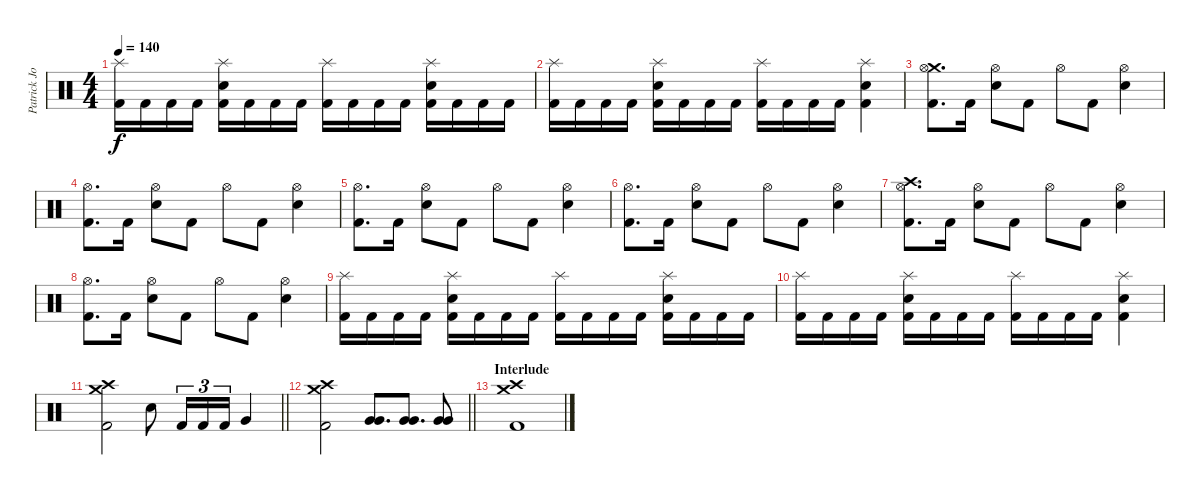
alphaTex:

\track ("Patrick Johansson" "Patrick Jo") {instrument percussion}
\staff {score}
\articulation defaults
\ts (4 4)
\tempo 140
\clef neutral
\ks c
("Splash (hit)" "Kick (hit) 2").16{dy f} "Kick (hit) 2".16 "Kick (hit) 2".16 "Kick (hit) 2".16 ("Splash (hit)" "Snare (hit) 2" "Kick (hit) 2").16 "Kick (hit) 2".16 "Kick (hit) 2".16 "Kick (hit) 2".16 ("Splash (hit)" "Kick (hit) 2").16 "Kick (hit) 2".16 "Kick (hit) 2".16 "Kick (hit) 2".16 ("Splash (hit)" "Snare (hit) 2" "Kick (hit) 2").16 "Kick (hit) 2".16 "Kick (hit) 2".16 "Kick (hit) 2".16 |
("Splash (hit)" "Kick (hit) 2").16 "Kick (hit) 2".16 "Kick (hit) 2".16 "Kick (hit) 2".16 ("Splash (hit)" "Snare (hit) 2" "Kick (hit) 2").16 "Kick (hit) 2".16 "Kick (hit) 2".16 "Kick (hit) 2".16 ("Splash (hit)" "Kick (hit) 2").16 "Kick (hit) 2".16 "Kick (hit) 2".16 "Kick (hit) 2".16 ("Splash (hit)" "Snare (hit) 2" "Kick (hit) 2").4 |
("Crash medium (hit)" "Hi-Hat (open)" "Kick (hit) 2").8{d} "Kick (hit) 2".16 ("Hi-Hat (open)" "Snare (hit) 2").8 "Kick (hit) 2".8 "Hi-Hat (open)".8 "Kick (hit) 2".8 ("Hi-Hat (open)" "Snare (hit) 2").4 |
("Hi-Hat (open)" "Kick (hit) 2").8{d} "Kick (hit) 2".16 ("Hi-Hat (open)" "Snare (hit) 2").8 "Kick (hit) 2".8 "Hi-Hat (open)".8 "Kick (hit) 2".8 ("Hi-Hat (open)" "Snare (hit) 2").4 |
("Hi-Hat (open)" "Kick (hit) 2").8{d} "Kick (hit) 2".16 ("Hi-Hat (open)" "Snare (hit) 2").8 "Kick (hit) 2".8 "Hi-Hat (open)".8 "Kick (hit) 2".8 ("Hi-Hat (open)" "Snare (hit) 2").4 |
("Hi-Hat (open)" "Kick (hit) 2").8{d} "Kick (hit) 2".16 ("Hi-Hat (open)" "Snare (hit) 2").8 "Kick (hit) 2".8 "Hi-Hat (open)".8 "Kick (hit) 2".8 ("Hi-Hat (open)" "Snare (hit) 2").4 |
("Crash high (hit)" "Hi-Hat (open)" "Kick (hit) 2").8{d} "Kick (hit) 2".16 ("Hi-Hat (open)" "Snare (hit) 2").8 "Kick (hit) 2".8 "Hi-Hat (open)".8 "Kick (hit) 2".8 ("Hi-Hat (open)" "Snare (hit) 2").4 |
("Hi-Hat (open)" "Kick (hit) 2").8{d} "Kick (hit) 2".16 ("Hi-Hat (open)" "Snare (hit) 2").8 "Kick (hit) 2".8 "Hi-Hat (open)".8 "Kick (hit) 2".8 ("Hi-Hat (open)" "Snare (hit) 2").4 |
("Splash (hit)" "Kick (hit) 2").16 "Kick (hit) 2".16 "Kick (hit) 2".16 "Kick (hit) 2".16 ("Splash (hit)" "Snare (hit) 2" "Kick (hit) 2").16 "Kick (hit) 2".16 "Kick (hit) 2".16 "Kick (hit) 2".16 ("Splash (hit)" "Kick (hit) 2").16 "Kick (hit) 2".16 "Kick (hit) 2".16 "Kick (hit) 2".16 ("Splash (hit)" "Snare (hit) 2" "Kick (hit) 2").16 "Kick (hit) 2".16 "Kick (hit) 2".16 "Kick (hit) 2".16 |
("Splash (hit)" "Kick (hit) 2").16 "Kick (hit) 2".16 "Kick (hit) 2".16 "Kick (hit) 2".16 ("Splash (hit)" "Snare (hit) 2" "Kick (hit) 2").16 "Kick (hit) 2".16 "Kick (hit) 2".16 "Kick (hit) 2".16 ("Splash (hit)" "Kick (hit) 2").16 "Kick (hit) 2".16 "Kick (hit) 2".16 "Kick (hit) 2".16 ("Splash (hit)" "Snare (hit) 2" "Kick (hit) 2").4 |
\barLineRight lightlight
("Crash medium (hit)" "Crash high (hit)" "Kick (hit) 2").2 "Snare (hit) 2".8 "Kick (hit) 2".16{tu (3 2)} "Kick (hit) 2".16{tu (3 2)} "Kick (hit) 2".16{tu (3 2)} "Very Low Tom (hit)".4 |
\barLineRight lightlight
("Crash medium (hit)" "Crash high (hit)" "Kick (hit) 2").2 ("Very Low Tom (hit)" "Very Low Tom (hit)").8{d} ("Very Low Tom (hit)" "Very Low Tom (hit)").8{d} ("Very Low Tom (hit)" "Very Low Tom (hit)").8 |
\section ("" "Interlude")
("Crash medium (hit)" "Crash high (hit)" "Kick (hit) 2").1
